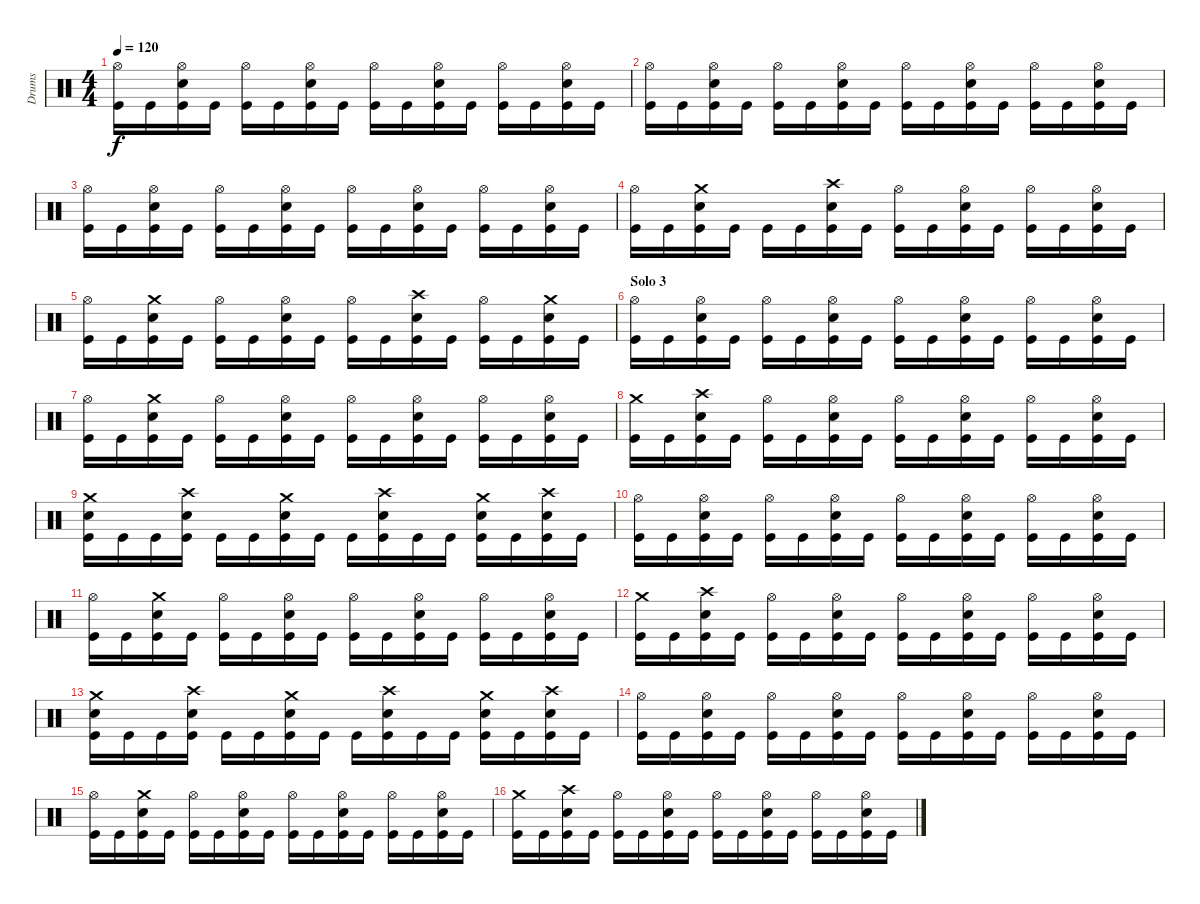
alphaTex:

\track ("Drums" "Drums") {instrument percussion}
\staff {score}
\articulation defaults
\ts (4 4)
\tempo 120
\clef neutral
\ks c
("Hi-Hat (open)" "Kick (hit)").16{dy f} "Kick (hit)".16 ("Hi-Hat (open)" "Snare (hit) 2" "Kick (hit)").16 "Kick (hit)".16 ("Hi-Hat (open)" "Kick (hit)").16 "Kick (hit)".16 ("Hi-Hat (open)" "Snare (hit) 2" "Kick (hit)").16 "Kick (hit)".16 ("Hi-Hat (open)" "Kick (hit)").16 "Kick (hit)".16 ("Hi-Hat (open)" "Snare (hit) 2" "Kick (hit)").16 "Kick (hit)".16 ("Hi-Hat (open)" "Kick (hit)").16 "Kick (hit)".16 ("Hi-Hat (open)" "Snare (hit) 2" "Kick (hit)").16 "Kick (hit)".16 |
("Hi-Hat (open)" "Kick (hit)").16 "Kick (hit)".16 ("Hi-Hat (open)" "Snare (hit) 2" "Kick (hit)").16 "Kick (hit)".16 ("Hi-Hat (open)" "Kick (hit)").16 "Kick (hit)".16 ("Hi-Hat (open)" "Snare (hit) 2" "Kick (hit)").16 "Kick (hit)".16 ("Hi-Hat (open)" "Kick (hit)").16 "Kick (hit)".16 ("Hi-Hat (open)" "Snare (hit) 2" "Kick (hit)").16 "Kick (hit)".16 ("Hi-Hat (open)" "Kick (hit)").16 "Kick (hit)".16 ("Hi-Hat (open)" "Snare (hit) 2" "Kick (hit)").16 "Kick (hit)".16 |
("Hi-Hat (open)" "Kick (hit)").16 "Kick (hit)".16 ("Hi-Hat (open)" "Snare (hit) 2" "Kick (hit)").16 "Kick (hit)".16 ("Hi-Hat (open)" "Kick (hit)").16 "Kick (hit)".16 ("Hi-Hat (open)" "Snare (hit) 2" "Kick (hit)").16 "Kick (hit)".16 ("Hi-Hat (open)" "Kick (hit)").16 "Kick (hit)".16 ("Hi-Hat (open)" "Snare (hit) 2" "Kick (hit)").16 "Kick (hit)".16 ("Hi-Hat (open)" "Kick (hit)").16 "Kick (hit)".16 ("Hi-Hat (open)" "Snare (hit) 2" "Kick (hit)").16 "Kick (hit)".16 |
("Hi-Hat (open)" "Kick (hit)").16 "Kick (hit)".16 ("Crash medium (hit)" "Snare (hit) 2" "Kick (hit)").16 "Kick (hit)".16 "Kick (hit)".16 "Kick (hit)".16 ("Crash high (hit)" "Snare (hit) 2" "Kick (hit)").16 "Kick (hit)".16 ("Hi-Hat (open)" "Kick (hit)").16 "Kick (hit)".16 ("Hi-Hat (open)" "Snare (hit) 2" "Kick (hit)").16 "Kick (hit)".16 ("Hi-Hat (open)" "Kick (hit)").16 "Kick (hit)".16 ("Hi-Hat (open)" "Snare (hit) 2" "Kick (hit)").16 "Kick (hit)".16 |
("Hi-Hat (open)" "Kick (hit)").16 "Kick (hit)".16 ("Crash medium (hit)" "Snare (hit) 2" "Kick (hit)").16 "Kick (hit)".16 ("Hi-Hat (open)" "Kick (hit)").16 "Kick (hit)".16 ("Hi-Hat (open)" "Snare (hit) 2" "Kick (hit)").16 "Kick (hit)".16 ("Hi-Hat (open)" "Kick (hit)").16 "Kick (hit)".16 ("Crash high (hit)" "Snare (hit) 2" "Kick (hit)").16 "Kick (hit)".16 ("Hi-Hat (open)" "Kick (hit)").16 "Kick (hit)".16 ("Crash medium (hit)" "Snare (hit) 2" "Kick (hit)").16 "Kick (hit)".16 |
\section ("" "Solo 3")
("Hi-Hat (open)" "Kick (hit)").16 "Kick (hit)".16 ("Hi-Hat (open)" "Snare (hit) 2" "Kick (hit)").16 "Kick (hit)".16 ("Hi-Hat (open)" "Kick (hit)").16 "Kick (hit)".16 ("Hi-Hat (open)" "Snare (hit) 2" "Kick (hit)").16 "Kick (hit)".16 ("Hi-Hat (open)" "Kick (hit)").16 "Kick (hit)".16 ("Hi-Hat (open)" "Snare (hit) 2" "Kick (hit)").16 "Kick (hit)".16 ("Hi-Hat (open)" "Kick (hit)").16 "Kick (hit)".16 ("Hi-Hat (open)" "Snare (hit) 2" "Kick (hit)").16 "Kick (hit)".16 |
("Hi-Hat (open)" "Kick (hit)").16 "Kick (hit)".16 ("Crash medium (hit)" "Snare (hit) 2" "Kick (hit)").16 "Kick (hit)".16 ("Hi-Hat (open)" "Kick (hit)").16 "Kick (hit)".16 ("Hi-Hat (open)" "Snare (hit) 2" "Kick (hit)").16 "Kick (hit)".16 ("Hi-Hat (open)" "Kick (hit)").16 "Kick (hit)".16 ("Hi-Hat (open)" "Snare (hit) 2" "Kick (hit)").16 "Kick (hit)".16 ("Hi-Hat (open)" "Kick (hit)").16 "Kick (hit)".16 ("Hi-Hat (open)" "Snare (hit) 2" "Kick (hit)").16 "Kick (hit)".16 |
("Crash medium (hit)" "Kick (hit)").16 "Kick (hit)".16 ("Crash high (hit)" "Snare (hit) 2" "Kick (hit)").16 "Kick (hit)".16 ("Hi-Hat (open)" "Kick (hit)").16 "Kick (hit)".16 ("Hi-Hat (open)" "Snare (hit) 2" "Kick (hit)").16 "Kick (hit)".16 ("Hi-Hat (open)" "Kick (hit)").16 "Kick (hit)".16 ("Hi-Hat (open)" "Snare (hit) 2" "Kick (hit)").16 "Kick (hit)".16 ("Hi-Hat (open)" "Kick (hit)").16 "Kick (hit)".16 ("Hi-Hat (open)" "Snare (hit) 2" "Kick (hit)").16 "Kick (hit)".16 |
("Crash medium (hit)" "Snare (hit) 2" "Kick (hit)").16 "Kick (hit)".16 "Kick (hit)".16 ("Crash high (hit)" "Snare (hit) 2" "Kick (hit)").16 "Kick (hit)".16 "Kick (hit)".16 ("Crash medium (hit)" "Snare (hit) 2" "Kick (hit)").16 "Kick (hit)".16 "Kick (hit)".16 ("Crash high (hit)" "Snare (hit) 2" "Kick (hit)").16 "Kick (hit)".16 "Kick (hit)".16 ("Crash medium (hit)" "Snare (hit) 2" "Kick (hit)").16 "Kick (hit)".16 ("Crash high (hit)" "Snare (hit) 2" "Kick (hit)").16 "Kick (hit)".16 |
("Hi-Hat (open)" "Kick (hit)").16 "Kick (hit)".16 ("Hi-Hat (open)" "Snare (hit) 2" "Kick (hit)").16 "Kick (hit)".16 ("Hi-Hat (open)" "Kick (hit)").16 "Kick (hit)".16 ("Hi-Hat (open)" "Snare (hit) 2" "Kick (hit)").16 "Kick (hit)".16 ("Hi-Hat (open)" "Kick (hit)").16 "Kick (hit)".16 ("Hi-Hat (open)" "Snare (hit) 2" "Kick (hit)").16 "Kick (hit)".16 ("Hi-Hat (open)" "Kick (hit)").16 "Kick (hit)".16 ("Hi-Hat (open)" "Snare (hit) 2" "Kick (hit)").16 "Kick (hit)".16 |
("Hi-Hat (open)" "Kick (hit)").16 "Kick (hit)".16 ("Crash medium (hit)" "Snare (hit) 2" "Kick (hit)").16 "Kick (hit)".16 ("Hi-Hat (open)" "Kick (hit)").16 "Kick (hit)".16 ("Hi-Hat (open)" "Snare (hit) 2" "Kick (hit)").16 "Kick (hit)".16 ("Hi-Hat (open)" "Kick (hit)").16 "Kick (hit)".16 ("Hi-Hat (open)" "Snare (hit) 2" "Kick (hit)").16 "Kick (hit)".16 ("Hi-Hat (open)" "Kick (hit)").16 "Kick (hit)".16 ("Hi-Hat (open)" "Snare (hit) 2" "Kick (hit)").16 "Kick (hit)".16 |
("Crash medium (hit)" "Kick (hit)").16 "Kick (hit)".16 ("Crash high (hit)" "Snare (hit) 2" "Kick (hit)").16 "Kick (hit)".16 ("Hi-Hat (open)" "Kick (hit)").16 "Kick (hit)".16 ("Hi-Hat (open)" "Snare (hit) 2" "Kick (hit)").16 "Kick (hit)".16 ("Hi-Hat (open)" "Kick (hit)").16 "Kick (hit)".16 ("Hi-Hat (open)" "Snare (hit) 2" "Kick (hit)").16 "Kick (hit)".16 ("Hi-Hat (open)" "Kick (hit)").16 "Kick (hit)".16 ("Hi-Hat (open)" "Snare (hit) 2" "Kick (hit)").16 "Kick (hit)".16 |
("Crash medium (hit)" "Snare (hit) 2" "Kick (hit)").16 "Kick (hit)".16 "Kick (hit)".16 ("Crash high (hit)" "Snare (hit) 2" "Kick (hit)").16 "Kick (hit)".16 "Kick (hit)".16 ("Crash medium (hit)" "Snare (hit) 2" "Kick (hit)").16 "Kick (hit)".16 "Kick (hit)".16 ("Crash high (hit)" "Snare (hit) 2" "Kick (hit)").16 "Kick (hit)".16 "Kick (hit)".16 ("Crash medium (hit)" "Snare (hit) 2" "Kick (hit)").16 "Kick (hit)".16 ("Crash high (hit)" "Snare (hit) 2" "Kick (hit)").16 "Kick (hit)".16 |
("Hi-Hat (open)" "Kick (hit)").16 "Kick (hit)".16 ("Hi-Hat (open)" "Snare (hit) 2" "Kick (hit)").16 "Kick (hit)".16 ("Hi-Hat (open)" "Kick (hit)").16 "Kick (hit)".16 ("Hi-Hat (open)" "Snare (hit) 2" "Kick (hit)").16 "Kick (hit)".16 ("Hi-Hat (open)" "Kick (hit)").16 "Kick (hit)".16 ("Hi-Hat (open)" "Snare (hit) 2" "Kick (hit)").16 "Kick (hit)".16 ("Hi-Hat (open)" "Kick (hit)").16 "Kick (hit)".16 ("Hi-Hat (open)" "Snare (hit) 2" "Kick (hit)").16 "Kick (hit)".16 |
("Hi-Hat (open)" "Kick (hit)").16 "Kick (hit)".16 ("Crash medium (hit)" "Snare (hit) 2" "Kick (hit)").16 "Kick (hit)".16 ("Hi-Hat (open)" "Kick (hit)").16 "Kick (hit)".16 ("Hi-Hat (open)" "Snare (hit) 2" "Kick (hit)").16 "Kick (hit)".16 ("Hi-Hat (open)" "Kick (hit)").16 "Kick (hit)".16 ("Hi-Hat (open)" "Snare (hit) 2" "Kick (hit)").16 "Kick (hit)".16 ("Hi-Hat (open)" "Kick (hit)").16 "Kick (hit)".16 ("Hi-Hat (open)" "Snare (hit) 2" "Kick (hit)").16 "Kick (hit)".16 |
("Crash medium (hit)" "Kick (hit)").16 "Kick (hit)".16 ("Crash high (hit)" "Snare (hit) 2" "Kick (hit)").16 "Kick (hit)".16 ("Hi-Hat (open)" "Kick (hit)").16 "Kick (hit)".16 ("Hi-Hat (open)" "Snare (hit) 2" "Kick (hit)").16 "Kick (hit)".16 ("Hi-Hat (open)" "Kick (hit)").16 "Kick (hit)".16 ("Hi-Hat (open)" "Snare (hit) 2" "Kick (hit)").16 "Kick (hit)".16 ("Hi-Hat (open)" "Kick (hit)").16 "Kick (hit)".16 ("Hi-Hat (open)" "Snare (hit) 2" "Kick (hit)").16 "Kick (hit)".16
